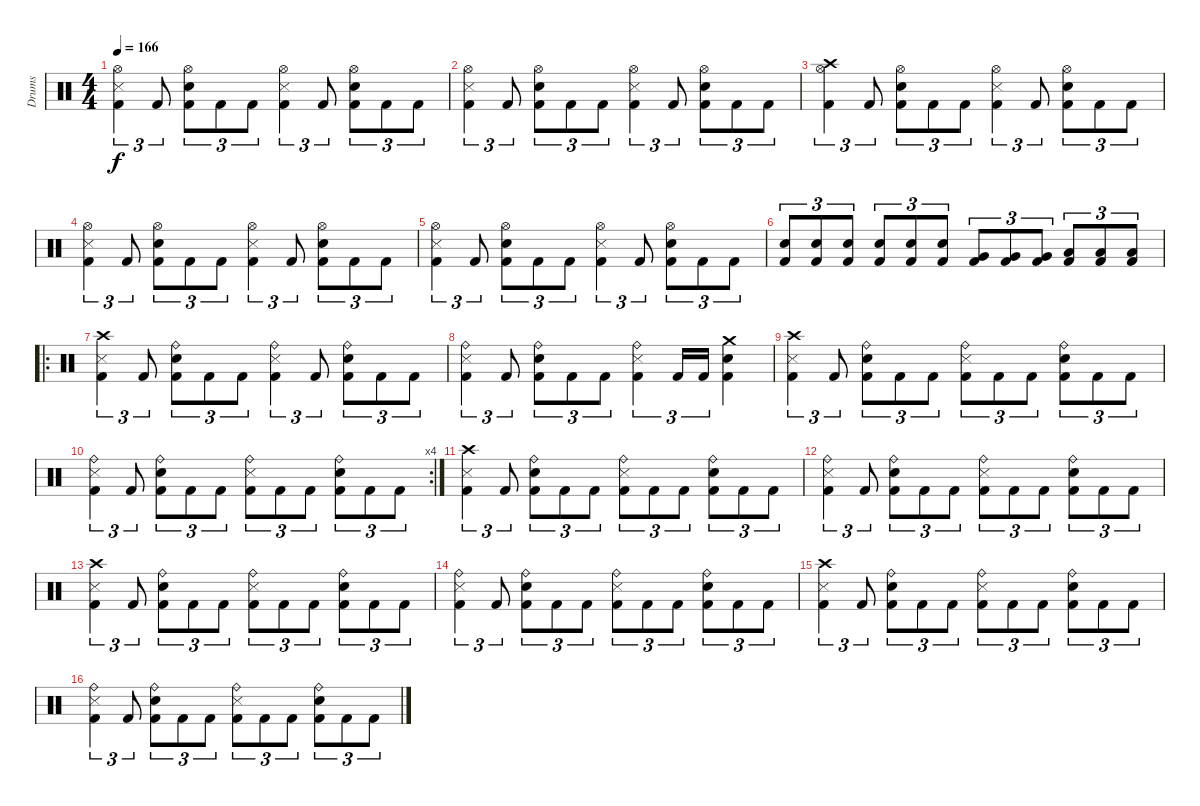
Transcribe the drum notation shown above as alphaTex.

\track ("Drums" "Drums") {instrument percussion}
\staff {score}
\articulation defaults
\ts (4 4)
\tempo 166
\clef neutral
\ks c
("Hi-Hat (open)" "Snare (side stick) 3" "Kick (hit) 2").4{tu (3 2) dy f} "Kick (hit) 2".8{tu (3 2)} ("Hi-Hat (open)" "Electric Snare (hit)" "Kick (hit) 2").8{tu (3 2)} "Kick (hit) 2".8{tu (3 2)} "Kick (hit) 2".8{tu (3 2)} ("Hi-Hat (open)" "Snare (side stick) 3" "Kick (hit) 2").4{tu (3 2)} "Kick (hit) 2".8{tu (3 2)} ("Hi-Hat (open)" "Electric Snare (hit)" "Kick (hit) 2").8{tu (3 2)} "Kick (hit) 2".8{tu (3 2)} "Kick (hit) 2".8{tu (3 2)} |
("Hi-Hat (open)" "Snare (side stick) 3" "Kick (hit) 2").4{tu (3 2)} "Kick (hit) 2".8{tu (3 2)} ("Hi-Hat (open)" "Electric Snare (hit)" "Kick (hit) 2").8{tu (3 2)} "Kick (hit) 2".8{tu (3 2)} "Kick (hit) 2".8{tu (3 2)} ("Hi-Hat (open)" "Snare (side stick) 3" "Kick (hit) 2").4{tu (3 2)} "Kick (hit) 2".8{tu (3 2)} ("Hi-Hat (open)" "Electric Snare (hit)" "Kick (hit) 2").8{tu (3 2)} "Kick (hit) 2".8{tu (3 2)} "Kick (hit) 2".8{tu (3 2)} |
("Crash high (hit)" "Hi-Hat (open)" "Kick (hit) 2").4{tu (3 2)} "Kick (hit) 2".8{tu (3 2)} ("Hi-Hat (open)" "Electric Snare (hit)" "Kick (hit) 2").8{tu (3 2)} "Kick (hit) 2".8{tu (3 2)} "Kick (hit) 2".8{tu (3 2)} ("Hi-Hat (open)" "Snare (side stick) 3" "Kick (hit) 2").4{tu (3 2)} "Kick (hit) 2".8{tu (3 2)} ("Hi-Hat (open)" "Electric Snare (hit)" "Kick (hit) 2").8{tu (3 2)} "Kick (hit) 2".8{tu (3 2)} "Kick (hit) 2".8{tu (3 2)} |
("Hi-Hat (open)" "Snare (side stick) 3" "Kick (hit) 2").4{tu (3 2)} "Kick (hit) 2".8{tu (3 2)} ("Hi-Hat (open)" "Electric Snare (hit)" "Kick (hit) 2").8{tu (3 2)} "Kick (hit) 2".8{tu (3 2)} "Kick (hit) 2".8{tu (3 2)} ("Hi-Hat (open)" "Snare (side stick) 3" "Kick (hit) 2").4{tu (3 2)} "Kick (hit) 2".8{tu (3 2)} ("Hi-Hat (open)" "Electric Snare (hit)" "Kick (hit) 2").8{tu (3 2)} "Kick (hit) 2".8{tu (3 2)} "Kick (hit) 2".8{tu (3 2)} |
("Hi-Hat (open)" "Snare (side stick) 3" "Kick (hit) 2").4{tu (3 2)} "Kick (hit) 2".8{tu (3 2)} ("Hi-Hat (open)" "Electric Snare (hit)" "Kick (hit) 2").8{tu (3 2)} "Kick (hit) 2".8{tu (3 2)} "Kick (hit) 2".8{tu (3 2)} ("Hi-Hat (open)" "Snare (side stick) 3" "Kick (hit) 2").4{tu (3 2)} "Kick (hit) 2".8{tu (3 2)} ("Hi-Hat (open)" "Electric Snare (hit)" "Kick (hit) 2").8{tu (3 2)} "Kick (hit) 2".8{tu (3 2)} "Kick (hit) 2".8{tu (3 2)} |
("Electric Snare (hit)" "Kick (hit) 2").8{tu (3 2)} ("Electric Snare (hit)" "Kick (hit) 2").8{tu (3 2)} ("Electric Snare (hit)" "Kick (hit) 2").8{tu (3 2)} ("Electric Snare (hit)" "Kick (hit) 2").8{tu (3 2)} ("Electric Snare (hit)" "Kick (hit) 2").8{tu (3 2)} ("Electric Snare (hit)" "Kick (hit) 2").8{tu (3 2)} ("Very Low Tom (hit)" "Kick (hit) 2").8{tu (3 2)} ("Very Low Tom (hit)" "Kick (hit) 2").8{tu (3 2)} ("Very Low Tom (hit)" "Kick (hit) 2").8{tu (3 2)} ("Low Tom (hit)" "Kick (hit) 2").8{tu (3 2)} ("Low Tom (hit)" "Kick (hit) 2").8{tu (3 2)} ("Low Tom (hit)" "Kick (hit) 2").8{tu (3 2)} |
\ro
("Crash high (hit)" "Snare (side stick) 3" "Kick (hit) 2").4{tu (3 2)} "Kick (hit) 2".8{tu (3 2)} ("Ride (bell)" "Electric Snare (hit)" "Kick (hit) 2").8{tu (3 2)} "Kick (hit) 2".8{tu (3 2)} "Kick (hit) 2".8{tu (3 2)} ("Ride (bell)" "Snare (side stick) 3" "Kick (hit) 2").4{tu (3 2)} "Kick (hit) 2".8{tu (3 2)} ("Ride (bell)" "Electric Snare (hit)" "Kick (hit) 2").8{tu (3 2)} "Kick (hit) 2".8{tu (3 2)} "Kick (hit) 2".8{tu (3 2)} |
("Ride (bell)" "Snare (side stick) 3" "Kick (hit) 2").4{tu (3 2)} "Kick (hit) 2".8{tu (3 2)} ("Ride (bell)" "Electric Snare (hit)" "Kick (hit) 2").8{tu (3 2)} "Kick (hit) 2".8{tu (3 2)} "Kick (hit) 2".8{tu (3 2)} ("Ride (bell)" "Snare (side stick) 3" "Kick (hit) 2").4{tu (3 2)} "Kick (hit) 2".16{tu (3 2)} "Kick (hit) 2".16{tu (3 2)} ("Crash medium (hit)" "Electric Snare (hit)" "Kick (hit) 2").4 |
("Crash high (hit)" "Snare (side stick) 3" "Kick (hit) 2").4{tu (3 2)} "Kick (hit) 2".8{tu (3 2)} ("Ride (bell)" "Electric Snare (hit)" "Kick (hit) 2").8{tu (3 2)} "Kick (hit) 2".8{tu (3 2)} "Kick (hit) 2".8{tu (3 2)} ("Ride (bell)" "Snare (side stick) 3" "Kick (hit) 2").8{tu (3 2)} "Kick (hit) 2".8{tu (3 2)} "Kick (hit) 2".8{tu (3 2)} ("Ride (bell)" "Electric Snare (hit)" "Kick (hit) 2").8{tu (3 2)} "Kick (hit) 2".8{tu (3 2)} "Kick (hit) 2".8{tu (3 2)} |
\rc 4
("Ride (bell)" "Snare (side stick) 3" "Kick (hit) 2").4{tu (3 2)} "Kick (hit) 2".8{tu (3 2)} ("Ride (bell)" "Electric Snare (hit)" "Kick (hit) 2").8{tu (3 2)} "Kick (hit) 2".8{tu (3 2)} "Kick (hit) 2".8{tu (3 2)} ("Ride (bell)" "Snare (side stick) 3" "Kick (hit) 2").8{tu (3 2)} "Kick (hit) 2".8{tu (3 2)} "Kick (hit) 2".8{tu (3 2)} ("Ride (bell)" "Electric Snare (hit)" "Kick (hit) 2").8{tu (3 2)} "Kick (hit) 2".8{tu (3 2)} "Kick (hit) 2".8{tu (3 2)} |
("Crash high (hit)" "Snare (side stick) 3" "Kick (hit) 2").4{tu (3 2)} "Kick (hit) 2".8{tu (3 2)} ("Ride (bell)" "Electric Snare (hit)" "Kick (hit) 2").8{tu (3 2)} "Kick (hit) 2".8{tu (3 2)} "Kick (hit) 2".8{tu (3 2)} ("Ride (bell)" "Snare (side stick) 3" "Kick (hit) 2").8{tu (3 2)} "Kick (hit) 2".8{tu (3 2)} "Kick (hit) 2".8{tu (3 2)} ("Ride (bell)" "Electric Snare (hit)" "Kick (hit) 2").8{tu (3 2)} "Kick (hit) 2".8{tu (3 2)} "Kick (hit) 2".8{tu (3 2)} |
("Ride (bell)" "Snare (side stick) 3" "Kick (hit) 2").4{tu (3 2)} "Kick (hit) 2".8{tu (3 2)} ("Ride (bell)" "Electric Snare (hit)" "Kick (hit) 2").8{tu (3 2)} "Kick (hit) 2".8{tu (3 2)} "Kick (hit) 2".8{tu (3 2)} ("Ride (bell)" "Snare (side stick) 3" "Kick (hit) 2").8{tu (3 2)} "Kick (hit) 2".8{tu (3 2)} "Kick (hit) 2".8{tu (3 2)} ("Ride (bell)" "Electric Snare (hit)" "Kick (hit) 2").8{tu (3 2)} "Kick (hit) 2".8{tu (3 2)} "Kick (hit) 2".8{tu (3 2)} |
("Crash high (hit)" "Snare (side stick) 3" "Kick (hit) 2").4{tu (3 2)} "Kick (hit) 2".8{tu (3 2)} ("Ride (bell)" "Electric Snare (hit)" "Kick (hit) 2").8{tu (3 2)} "Kick (hit) 2".8{tu (3 2)} "Kick (hit) 2".8{tu (3 2)} ("Ride (bell)" "Snare (side stick) 3" "Kick (hit) 2").8{tu (3 2)} "Kick (hit) 2".8{tu (3 2)} "Kick (hit) 2".8{tu (3 2)} ("Ride (bell)" "Electric Snare (hit)" "Kick (hit) 2").8{tu (3 2)} "Kick (hit) 2".8{tu (3 2)} "Kick (hit) 2".8{tu (3 2)} |
("Ride (bell)" "Snare (side stick) 3" "Kick (hit) 2").4{tu (3 2)} "Kick (hit) 2".8{tu (3 2)} ("Ride (bell)" "Electric Snare (hit)" "Kick (hit) 2").8{tu (3 2)} "Kick (hit) 2".8{tu (3 2)} "Kick (hit) 2".8{tu (3 2)} ("Ride (bell)" "Snare (side stick) 3" "Kick (hit) 2").8{tu (3 2)} "Kick (hit) 2".8{tu (3 2)} "Kick (hit) 2".8{tu (3 2)} ("Ride (bell)" "Electric Snare (hit)" "Kick (hit) 2").8{tu (3 2)} "Kick (hit) 2".8{tu (3 2)} "Kick (hit) 2".8{tu (3 2)} |
("Crash high (hit)" "Snare (side stick) 3" "Kick (hit) 2").4{tu (3 2)} "Kick (hit) 2".8{tu (3 2)} ("Ride (bell)" "Electric Snare (hit)" "Kick (hit) 2").8{tu (3 2)} "Kick (hit) 2".8{tu (3 2)} "Kick (hit) 2".8{tu (3 2)} ("Ride (bell)" "Snare (side stick) 3" "Kick (hit) 2").8{tu (3 2)} "Kick (hit) 2".8{tu (3 2)} "Kick (hit) 2".8{tu (3 2)} ("Ride (bell)" "Electric Snare (hit)" "Kick (hit) 2").8{tu (3 2)} "Kick (hit) 2".8{tu (3 2)} "Kick (hit) 2".8{tu (3 2)} |
("Ride (bell)" "Snare (side stick) 3" "Kick (hit) 2").4{tu (3 2)} "Kick (hit) 2".8{tu (3 2)} ("Ride (bell)" "Electric Snare (hit)" "Kick (hit) 2").8{tu (3 2)} "Kick (hit) 2".8{tu (3 2)} "Kick (hit) 2".8{tu (3 2)} ("Ride (bell)" "Snare (side stick) 3" "Kick (hit) 2").8{tu (3 2)} "Kick (hit) 2".8{tu (3 2)} "Kick (hit) 2".8{tu (3 2)} ("Ride (bell)" "Electric Snare (hit)" "Kick (hit) 2").8{tu (3 2)} "Kick (hit) 2".8{tu (3 2)} "Kick (hit) 2".8{tu (3 2)}
